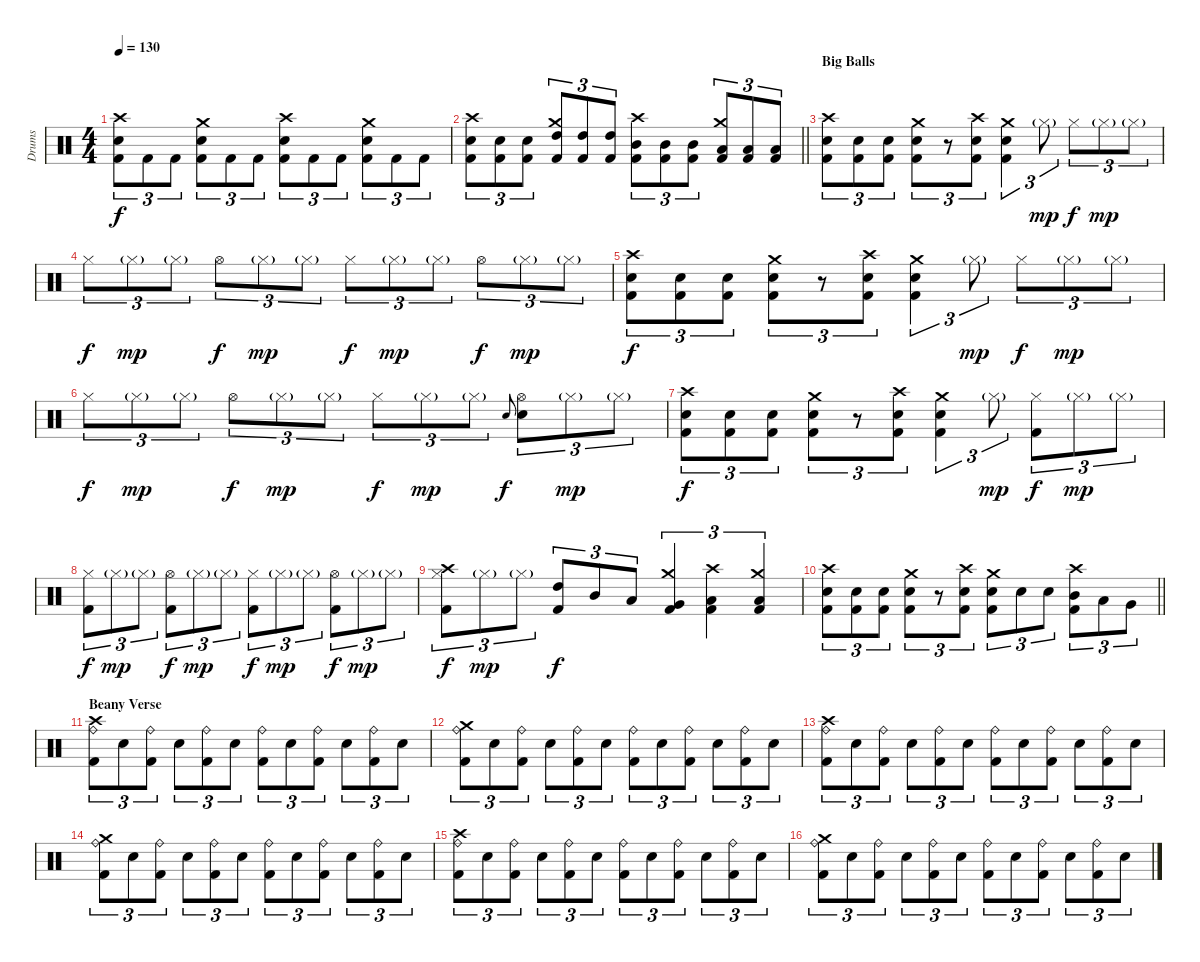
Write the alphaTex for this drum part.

\track ("Drums" "Drums") {instrument percussion}
\staff {score}
\articulation defaults
\ts (4 4)
\tempo 130
\clef neutral
\ks c
("Crash high (hit)" "Snare (hit) 2" "Kick (hit) 2").8{tu (3 2) dy f} "Kick (hit) 2".8{tu (3 2)} "Kick (hit) 2".8{tu (3 2)} ("Crash medium (hit)" "Snare (hit) 2" "Kick (hit) 2").8{tu (3 2)} "Kick (hit) 2".8{tu (3 2)} "Kick (hit) 2".8{tu (3 2)} ("Crash high (hit)" "Snare (hit) 2" "Kick (hit) 2").8{tu (3 2)} "Kick (hit) 2".8{tu (3 2)} "Kick (hit) 2".8{tu (3 2)} ("Crash medium (hit)" "Snare (hit) 2" "Kick (hit) 2").8{tu (3 2)} "Kick (hit) 2".8{tu (3 2)} "Kick (hit) 2".8{tu (3 2)} |
\barLineRight lightlight
("Crash high (hit)" "Snare (hit) 2" "Kick (hit) 2").8{tu (3 2)} ("Snare (hit) 2" "Kick (hit) 2").8{tu (3 2)} ("Snare (hit) 2" "Kick (hit) 2").8{tu (3 2)} ("Crash medium (hit)" "High Tom (hit)" "Kick (hit) 2").8{tu (3 2)} ("High Tom (hit)" "Kick (hit) 2").8{tu (3 2)} ("High Tom (hit)" "Kick (hit) 2").8{tu (3 2)} ("Crash high (hit)" "Mid Tom (hit)" "Kick (hit) 2").8{tu (3 2)} ("Mid Tom (hit)" "Kick (hit) 2").8{tu (3 2)} ("Mid Tom (hit)" "Kick (hit) 2").8{tu (3 2)} ("Crash medium (hit)" "Low Tom (hit)" "Kick (hit) 2").8{tu (3 2)} ("Low Tom (hit)" "Kick (hit) 2").8{tu (3 2)} ("Low Tom (hit)" "Kick (hit) 2").8{tu (3 2)} |
\section ("" "Big Balls")
("Crash high (hit)" "Snare (hit) 2" "Kick (hit) 2").8{tu (3 2)} ("Snare (hit) 2" "Kick (hit) 2").8{tu (3 2)} ("Snare (hit) 2" "Kick (hit) 2").8{tu (3 2)} ("Crash medium (hit)" "Snare (hit) 2" "Kick (hit) 2").8{tu (3 2)} r.8{tu (3 2)} ("Crash high (hit)" "Snare (hit) 2" "Kick (hit) 2").8{tu (3 2)} ("Crash medium (hit)" "Snare (hit) 2" "Kick (hit) 2").4{tu (3 2)} "Hi-Hat (closed)"{g}.8{tu (3 2) dy mp} "Hi-Hat (closed)".8{tu (3 2) dy f} "Hi-Hat (closed)"{g}.8{tu (3 2) dy mp} "Hi-Hat (closed)"{g}.8{tu (3 2)} |
"Hi-Hat (closed)".8{tu (3 2) dy f} "Hi-Hat (closed)"{g}.8{tu (3 2) dy mp} "Hi-Hat (closed)"{g}.8{tu (3 2)} "Hi-Hat (open)".8{tu (3 2) dy f} "Hi-Hat (closed)"{g}.8{tu (3 2) dy mp} "Hi-Hat (closed)"{g}.8{tu (3 2)} "Hi-Hat (closed)".8{tu (3 2) dy f} "Hi-Hat (closed)"{g}.8{tu (3 2) dy mp} "Hi-Hat (closed)"{g}.8{tu (3 2)} "Hi-Hat (open)".8{tu (3 2) dy f} "Hi-Hat (closed)"{g}.8{tu (3 2) dy mp} "Hi-Hat (closed)"{g}.8{tu (3 2)} |
("Crash high (hit)" "Snare (hit) 2" "Kick (hit) 2").8{tu (3 2) dy f} ("Snare (hit) 2" "Kick (hit) 2").8{tu (3 2)} ("Snare (hit) 2" "Kick (hit) 2").8{tu (3 2)} ("Crash medium (hit)" "Snare (hit) 2" "Kick (hit) 2").8{tu (3 2)} r.8{tu (3 2)} ("Crash high (hit)" "Snare (hit) 2" "Kick (hit) 2").8{tu (3 2)} ("Crash medium (hit)" "Snare (hit) 2" "Kick (hit) 2").4{tu (3 2)} "Hi-Hat (closed)"{g}.8{tu (3 2) dy mp} "Hi-Hat (closed)".8{tu (3 2) dy f} "Hi-Hat (closed)"{g}.8{tu (3 2) dy mp} "Hi-Hat (closed)"{g}.8{tu (3 2)} |
"Hi-Hat (closed)".8{tu (3 2) dy f} "Hi-Hat (closed)"{g}.8{tu (3 2) dy mp} "Hi-Hat (closed)"{g}.8{tu (3 2)} "Hi-Hat (open)".8{tu (3 2) dy f} "Hi-Hat (closed)"{g}.8{tu (3 2) dy mp} "Hi-Hat (closed)"{g}.8{tu (3 2)} "Hi-Hat (closed)".8{tu (3 2) dy f} "Hi-Hat (closed)"{g}.8{tu (3 2) dy mp} "Hi-Hat (closed)"{g}.8{tu (3 2)} "Snare (hit) 2".8{gr onbeat dy f} ("Hi-Hat (open)" "Snare (hit) 2").8{tu (3 2)} "Hi-Hat (closed)"{g}.8{tu (3 2) dy mp} "Hi-Hat (closed)"{g}.8{tu (3 2)} |
("Crash high (hit)" "Snare (hit) 2" "Kick (hit) 2").8{tu (3 2) dy f} ("Snare (hit) 2" "Kick (hit) 2").8{tu (3 2)} ("Snare (hit) 2" "Kick (hit) 2").8{tu (3 2)} ("Crash medium (hit)" "Snare (hit) 2" "Kick (hit) 2").8{tu (3 2)} r.8{tu (3 2)} ("Crash high (hit)" "Snare (hit) 2" "Kick (hit) 2").8{tu (3 2)} ("Crash medium (hit)" "Snare (hit) 2" "Kick (hit) 2").4{tu (3 2)} "Hi-Hat (closed)"{g}.8{tu (3 2) dy mp} ("Hi-Hat (closed)" "Kick (hit) 2").8{tu (3 2) dy f} "Hi-Hat (closed)"{g}.8{tu (3 2) dy mp} "Hi-Hat (closed)"{g}.8{tu (3 2)} |
("Hi-Hat (closed)" "Kick (hit) 2").8{tu (3 2) dy f} "Hi-Hat (closed)"{g}.8{tu (3 2) dy mp} "Hi-Hat (closed)"{g}.8{tu (3 2)} ("Hi-Hat (open)" "Kick (hit) 2").8{tu (3 2) dy f} "Hi-Hat (closed)"{g}.8{tu (3 2) dy mp} "Hi-Hat (closed)"{g}.8{tu (3 2)} ("Hi-Hat (closed)" "Kick (hit) 2").8{tu (3 2) dy f} "Hi-Hat (closed)"{g}.8{tu (3 2) dy mp} "Hi-Hat (closed)"{g}.8{tu (3 2)} ("Hi-Hat (open)" "Kick (hit) 2").8{tu (3 2) dy f} "Hi-Hat (closed)"{g}.8{tu (3 2) dy mp} "Hi-Hat (closed)"{g}.8{tu (3 2)} |
("Crash high (hit)" "Hi-Hat (closed)" "Kick (hit) 2").8{tu (3 2) dy f} "Hi-Hat (closed)"{g}.8{tu (3 2) dy mp} "Hi-Hat (closed)"{g}.8{tu (3 2)} ("High Tom (hit)" "Kick (hit) 2").8{tu (3 2) dy f} "Mid Tom (hit)".8{tu (3 2)} "Low Tom (hit)".8{tu (3 2)} ("Crash medium (hit)" "Very Low Tom (hit)" "Kick (hit) 2").4{tu (3 2)} ("Crash high (hit)" "Low Floor Tom (hit)" "Kick (hit) 2").4{tu (3 2)} ("Crash medium (hit)" "Low Floor Tom (hit)" "Kick (hit) 2").4{tu (3 2)} |
\barLineRight lightlight
("Crash high (hit)" "Snare (hit) 2" "Kick (hit) 2").8{tu (3 2)} ("Snare (hit) 2" "Kick (hit) 2").8{tu (3 2)} ("Snare (hit) 2" "Kick (hit) 2").8{tu (3 2)} ("Crash medium (hit)" "Snare (hit) 2" "Kick (hit) 2").8{tu (3 2)} r.8{tu (3 2)} ("Crash high (hit)" "Snare (hit) 2" "Kick (hit) 2").8{tu (3 2)} ("Crash medium (hit)" "Snare (hit) 2" "Kick (hit) 2").8{tu (3 2)} "Snare (hit) 2".8{tu (3 2)} "Snare (hit) 2".8{tu (3 2)} ("Crash high (hit)" "Mid Tom (hit)" "Kick (hit) 2").8{tu (3 2)} "Low Tom (hit)".8{tu (3 2)} "Very Low Tom (hit)".8{tu (3 2)} |
\section ("" "Beany Verse")
("Crash high (hit)" "Ride (bell)" "Kick (hit) 2").8{tu (3 2)} "Snare (hit) 2".8{tu (3 2)} ("Ride (bell)" "Kick (hit) 2").8{tu (3 2)} "Snare (hit) 2".8{tu (3 2)} ("Ride (bell)" "Kick (hit) 2").8{tu (3 2)} "Snare (hit) 2".8{tu (3 2)} ("Ride (bell)" "Kick (hit) 2").8{tu (3 2)} "Snare (hit) 2".8{tu (3 2)} ("Ride (bell)" "Kick (hit) 2").8{tu (3 2)} "Snare (hit) 2".8{tu (3 2)} ("Ride (bell)" "Kick (hit) 2").8{tu (3 2)} "Snare (hit) 2".8{tu (3 2)} |
("Crash medium (hit)" "Ride (bell)" "Kick (hit) 2").8{tu (3 2)} "Snare (hit) 2".8{tu (3 2)} ("Ride (bell)" "Kick (hit) 2").8{tu (3 2)} "Snare (hit) 2".8{tu (3 2)} ("Ride (bell)" "Kick (hit) 2").8{tu (3 2)} "Snare (hit) 2".8{tu (3 2)} ("Ride (bell)" "Kick (hit) 2").8{tu (3 2)} "Snare (hit) 2".8{tu (3 2)} ("Ride (bell)" "Kick (hit) 2").8{tu (3 2)} "Snare (hit) 2".8{tu (3 2)} ("Ride (bell)" "Kick (hit) 2").8{tu (3 2)} "Snare (hit) 2".8{tu (3 2)} |
("Crash high (hit)" "Ride (bell)" "Kick (hit) 2").8{tu (3 2)} "Snare (hit) 2".8{tu (3 2)} ("Ride (bell)" "Kick (hit) 2").8{tu (3 2)} "Snare (hit) 2".8{tu (3 2)} ("Ride (bell)" "Kick (hit) 2").8{tu (3 2)} "Snare (hit) 2".8{tu (3 2)} ("Ride (bell)" "Kick (hit) 2").8{tu (3 2)} "Snare (hit) 2".8{tu (3 2)} ("Ride (bell)" "Kick (hit) 2").8{tu (3 2)} "Snare (hit) 2".8{tu (3 2)} ("Ride (bell)" "Kick (hit) 2").8{tu (3 2)} "Snare (hit) 2".8{tu (3 2)} |
("Crash medium (hit)" "Ride (bell)" "Kick (hit) 2").8{tu (3 2)} "Snare (hit) 2".8{tu (3 2)} ("Ride (bell)" "Kick (hit) 2").8{tu (3 2)} "Snare (hit) 2".8{tu (3 2)} ("Ride (bell)" "Kick (hit) 2").8{tu (3 2)} "Snare (hit) 2".8{tu (3 2)} ("Ride (bell)" "Kick (hit) 2").8{tu (3 2)} "Snare (hit) 2".8{tu (3 2)} ("Ride (bell)" "Kick (hit) 2").8{tu (3 2)} "Snare (hit) 2".8{tu (3 2)} ("Ride (bell)" "Kick (hit) 2").8{tu (3 2)} "Snare (hit) 2".8{tu (3 2)} |
("Crash high (hit)" "Ride (bell)" "Kick (hit) 2").8{tu (3 2)} "Snare (hit) 2".8{tu (3 2)} ("Ride (bell)" "Kick (hit) 2").8{tu (3 2)} "Snare (hit) 2".8{tu (3 2)} ("Ride (bell)" "Kick (hit) 2").8{tu (3 2)} "Snare (hit) 2".8{tu (3 2)} ("Ride (bell)" "Kick (hit) 2").8{tu (3 2)} "Snare (hit) 2".8{tu (3 2)} ("Ride (bell)" "Kick (hit) 2").8{tu (3 2)} "Snare (hit) 2".8{tu (3 2)} ("Ride (bell)" "Kick (hit) 2").8{tu (3 2)} "Snare (hit) 2".8{tu (3 2)} |
("Crash medium (hit)" "Ride (bell)" "Kick (hit) 2").8{tu (3 2)} "Snare (hit) 2".8{tu (3 2)} ("Ride (bell)" "Kick (hit) 2").8{tu (3 2)} "Snare (hit) 2".8{tu (3 2)} ("Ride (bell)" "Kick (hit) 2").8{tu (3 2)} "Snare (hit) 2".8{tu (3 2)} ("Ride (bell)" "Kick (hit) 2").8{tu (3 2)} "Snare (hit) 2".8{tu (3 2)} ("Ride (bell)" "Kick (hit) 2").8{tu (3 2)} "Snare (hit) 2".8{tu (3 2)} ("Ride (bell)" "Kick (hit) 2").8{tu (3 2)} "Snare (hit) 2".8{tu (3 2)}
